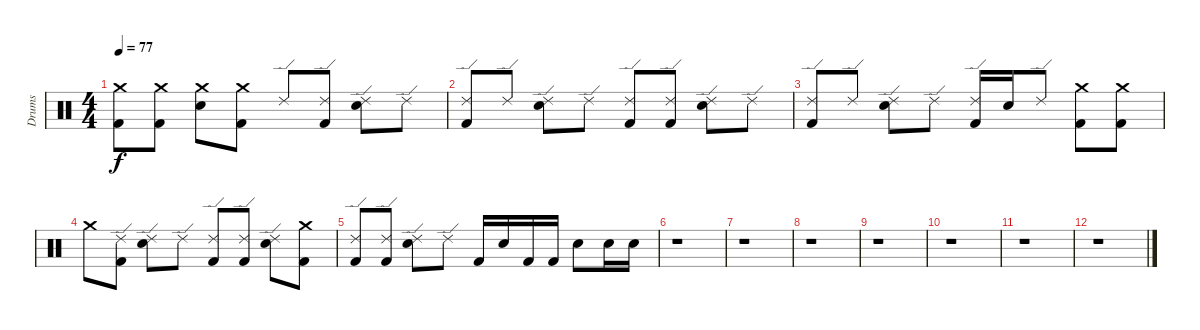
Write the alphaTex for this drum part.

\track ("Drums" "Drums") {instrument percussion}
\staff {score}
\articulation defaults
\ts (4 4)
\tempo 77
\clef neutral
\ks c
("Crash medium (hit)" "Kick (hit) 2").8{dy f} ("Crash medium (hit)" "Kick (hit) 2").8 ("Crash medium (hit)" "Electric Snare (hit)").8 ("Crash medium (hit)" "Kick (hit) 2").8 "Ride (edge) 2".8 ("Ride (edge) 2" "Kick (hit) 2").8 ("Ride (edge) 2" "Electric Snare (hit)").8 "Ride (edge) 2".8 |
("Ride (edge) 2" "Kick (hit) 2").8 "Ride (edge) 2".8 ("Ride (edge) 2" "Electric Snare (hit)").8 "Ride (edge) 2".8 ("Ride (edge) 2" "Kick (hit) 2").8 ("Ride (edge) 2" "Kick (hit) 2").8 ("Ride (edge) 2" "Electric Snare (hit)").8 "Ride (edge) 2".8 |
("Ride (edge) 2" "Kick (hit) 2").8 "Ride (edge) 2".8 ("Ride (edge) 2" "Electric Snare (hit)").8 "Ride (edge) 2".8 ("Ride (edge) 2" "Kick (hit) 2").16 "Electric Snare (hit)".16 "Ride (edge) 2".8 ("Crash medium (hit)" "Kick (hit) 2").8 ("Crash medium (hit)" "Kick (hit) 2").8 |
"Crash medium (hit)".8 ("Ride (edge) 2" "Kick (hit) 2").8 ("Ride (edge) 2" "Electric Snare (hit)").8 "Ride (edge) 2".8 ("Ride (edge) 2" "Kick (hit) 2").8 ("Ride (edge) 2" "Kick (hit) 2").8 ("Ride (edge) 2" "Electric Snare (hit)").8 ("Crash medium (hit)" "Kick (hit) 2").8 |
("Ride (edge) 2" "Kick (hit) 2").8 ("Ride (edge) 2" "Kick (hit) 2").8 ("Ride (edge) 2" "Electric Snare (hit)").8 "Ride (edge) 2".8 "Kick (hit) 2".16 "Electric Snare (hit)".16 "Kick (hit) 2".16 "Kick (hit) 2".16 "Electric Snare (hit)".8 "Electric Snare (hit)".16 "Electric Snare (hit)".16 |
r.1 |
r.1 |
r.1 |
r.1 |
r.1 |
r.1 |
r.1
